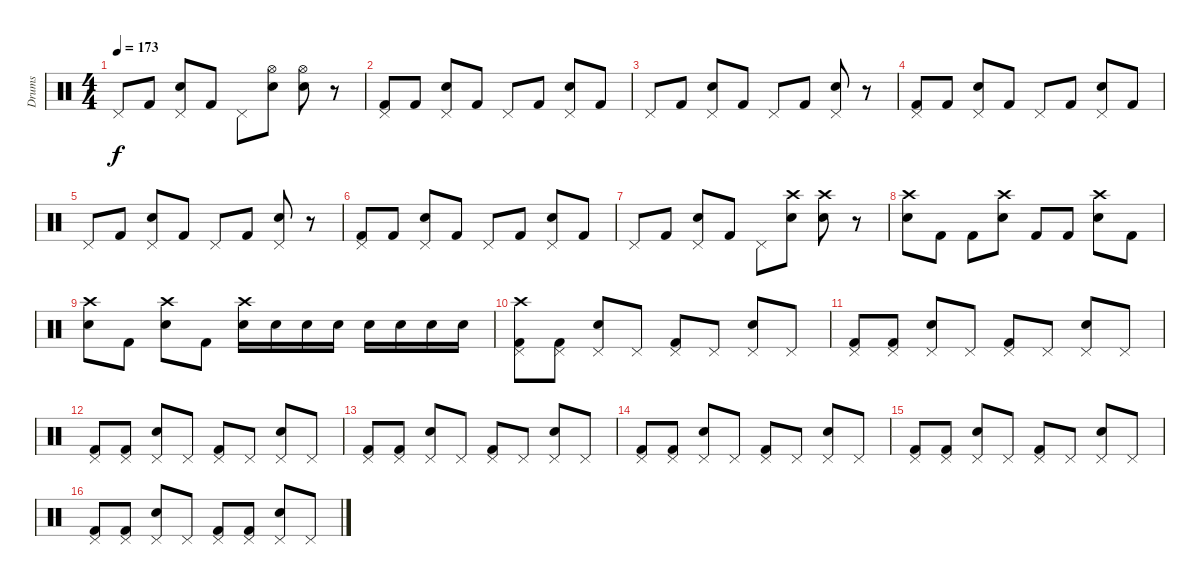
\track ("Drums" "Drums") {instrument percussion}
\staff {score}
\articulation defaults
\ts (4 4)
\tempo 173
\clef neutral
\ks c "Pedal Hi-Hat (hit)".8{dy f} "Kick (hit) 2".8
("Pedal Hi-Hat (hit)" "Snare (hit) 2").8 "Kick (hit) 2".8 "Pedal Hi-Hat (hit)".8 ("Hi-Hat (open)" "Snare (hit) 2").8 ("Hi-Hat (open)" "Snare (hit) 2").8 r.8 |
("Pedal Hi-Hat (hit)" "Kick (hit) 2").8 "Kick (hit) 2".8 ("Pedal Hi-Hat (hit)" "Snare (hit) 2").8 "Kick (hit) 2".8 "Pedal Hi-Hat (hit)".8 "Kick (hit) 2".8 ("Pedal Hi-Hat (hit)" "Snare (hit) 2").8 "Kick (hit) 2".8 |
"Pedal Hi-Hat (hit)".8 "Kick (hit) 2".8 ("Pedal Hi-Hat (hit)" "Snare (hit) 2").8 "Kick (hit) 2".8 "Pedal Hi-Hat (hit)".8 "Kick (hit) 2".8 ("Pedal Hi-Hat (hit)" "Snare (hit) 2").8 r.8 |
("Pedal Hi-Hat (hit)" "Kick (hit) 2").8 "Kick (hit) 2".8 ("Pedal Hi-Hat (hit)" "Snare (hit) 2").8 "Kick (hit) 2".8 "Pedal Hi-Hat (hit)".8 "Kick (hit) 2".8 ("Pedal Hi-Hat (hit)" "Snare (hit) 2").8 "Kick (hit) 2".8 |
"Pedal Hi-Hat (hit)".8 "Kick (hit) 2".8 ("Pedal Hi-Hat (hit)" "Snare (hit) 2").8 "Kick (hit) 2".8 "Pedal Hi-Hat (hit)".8 "Kick (hit) 2".8 ("Pedal Hi-Hat (hit)" "Snare (hit) 2").8 r.8 |
("Pedal Hi-Hat (hit)" "Kick (hit) 2").8 "Kick (hit) 2".8 ("Pedal Hi-Hat (hit)" "Snare (hit) 2").8 "Kick (hit) 2".8 "Pedal Hi-Hat (hit)".8 "Kick (hit) 2".8 ("Pedal Hi-Hat (hit)" "Snare (hit) 2").8 "Kick (hit) 2".8 |
"Pedal Hi-Hat (hit)".8 "Kick (hit) 2".8 ("Pedal Hi-Hat (hit)" "Snare (hit) 2").8 "Kick (hit) 2".8 "Pedal Hi-Hat (hit)".8 ("Crash high (hit)" "Snare (hit) 2").8 ("Crash high (hit)" "Snare (hit) 2").8 r.8 |
("Crash high (hit)" "Snare (hit) 2").8 "Kick (hit) 2".8 "Kick (hit) 2".8 ("Crash high (hit)" "Snare (hit) 2").8 "Kick (hit) 2".8 "Kick (hit) 2".8 ("Crash high (hit)" "Snare (hit) 2").8 "Kick (hit) 2".8 |
("Crash high (hit)" "Snare (hit) 2").8 "Kick (hit) 2".8 ("Crash high (hit)" "Snare (hit) 2").8 "Kick (hit) 2".8 ("Crash high (hit)" "Snare (hit) 2").16 "Snare (hit) 2".16 "Snare (hit) 2".16 "Snare (hit) 2".16 "Snare (hit) 2".16 "Snare (hit) 2".16 "Snare (hit) 2".16 "Snare (hit) 2".16 |
("Crash high (hit)" "Pedal Hi-Hat (hit)" "Kick (hit) 2").8 ("Pedal Hi-Hat (hit)" "Kick (hit) 2").8 ("Pedal Hi-Hat (hit)" "Snare (hit) 2").8 "Pedal Hi-Hat (hit)".8 ("Pedal Hi-Hat (hit)" "Kick (hit) 2").8 "Pedal Hi-Hat (hit)".8 ("Pedal Hi-Hat (hit)" "Snare (hit) 2").8 "Pedal Hi-Hat (hit)".8 |
("Pedal Hi-Hat (hit)" "Kick (hit) 2").8 ("Pedal Hi-Hat (hit)" "Kick (hit) 2").8 ("Pedal Hi-Hat (hit)" "Snare (hit) 2").8 "Pedal Hi-Hat (hit)".8 ("Pedal Hi-Hat (hit)" "Kick (hit) 2").8 "Pedal Hi-Hat (hit)".8 ("Pedal Hi-Hat (hit)" "Snare (hit) 2").8 "Pedal Hi-Hat (hit)".8 |
("Pedal Hi-Hat (hit)" "Kick (hit) 2").8 ("Pedal Hi-Hat (hit)" "Kick (hit) 2").8 ("Pedal Hi-Hat (hit)" "Snare (hit) 2").8 "Pedal Hi-Hat (hit)".8 ("Pedal Hi-Hat (hit)" "Kick (hit) 2").8 "Pedal Hi-Hat (hit)".8 ("Pedal Hi-Hat (hit)" "Snare (hit) 2").8 "Pedal Hi-Hat (hit)".8 |
("Pedal Hi-Hat (hit)" "Kick (hit) 2").8 ("Pedal Hi-Hat (hit)" "Kick (hit) 2").8 ("Pedal Hi-Hat (hit)" "Snare (hit) 2").8 "Pedal Hi-Hat (hit)".8 ("Pedal Hi-Hat (hit)" "Kick (hit) 2").8 "Pedal Hi-Hat (hit)".8 ("Pedal Hi-Hat (hit)" "Snare (hit) 2").8 "Pedal Hi-Hat (hit)".8 |
("Pedal Hi-Hat (hit)" "Kick (hit) 2").8 ("Pedal Hi-Hat (hit)" "Kick (hit) 2").8 ("Pedal Hi-Hat (hit)" "Snare (hit) 2").8 "Pedal Hi-Hat (hit)".8 ("Pedal Hi-Hat (hit)" "Kick (hit) 2").8 "Pedal Hi-Hat (hit)".8 ("Pedal Hi-Hat (hit)" "Snare (hit) 2").8 "Pedal Hi-Hat (hit)".8 |
("Pedal Hi-Hat (hit)" "Kick (hit) 2").8 ("Pedal Hi-Hat (hit)" "Kick (hit) 2").8 ("Pedal Hi-Hat (hit)" "Snare (hit) 2").8 "Pedal Hi-Hat (hit)".8 ("Pedal Hi-Hat (hit)" "Kick (hit) 2").8 "Pedal Hi-Hat (hit)".8 ("Pedal Hi-Hat (hit)" "Snare (hit) 2").8 "Pedal Hi-Hat (hit)".8 |
("Pedal Hi-Hat (hit)" "Kick (hit) 2").8 ("Pedal Hi-Hat (hit)" "Kick (hit) 2").8 ("Pedal Hi-Hat (hit)" "Snare (hit) 2").8 "Pedal Hi-Hat (hit)".8 ("Pedal Hi-Hat (hit)" "Kick (hit) 2").8 ("Pedal Hi-Hat (hit)" "Kick (hit) 2").8 ("Pedal Hi-Hat (hit)" "Snare (hit) 2").8 "Pedal Hi-Hat (hit)".8
